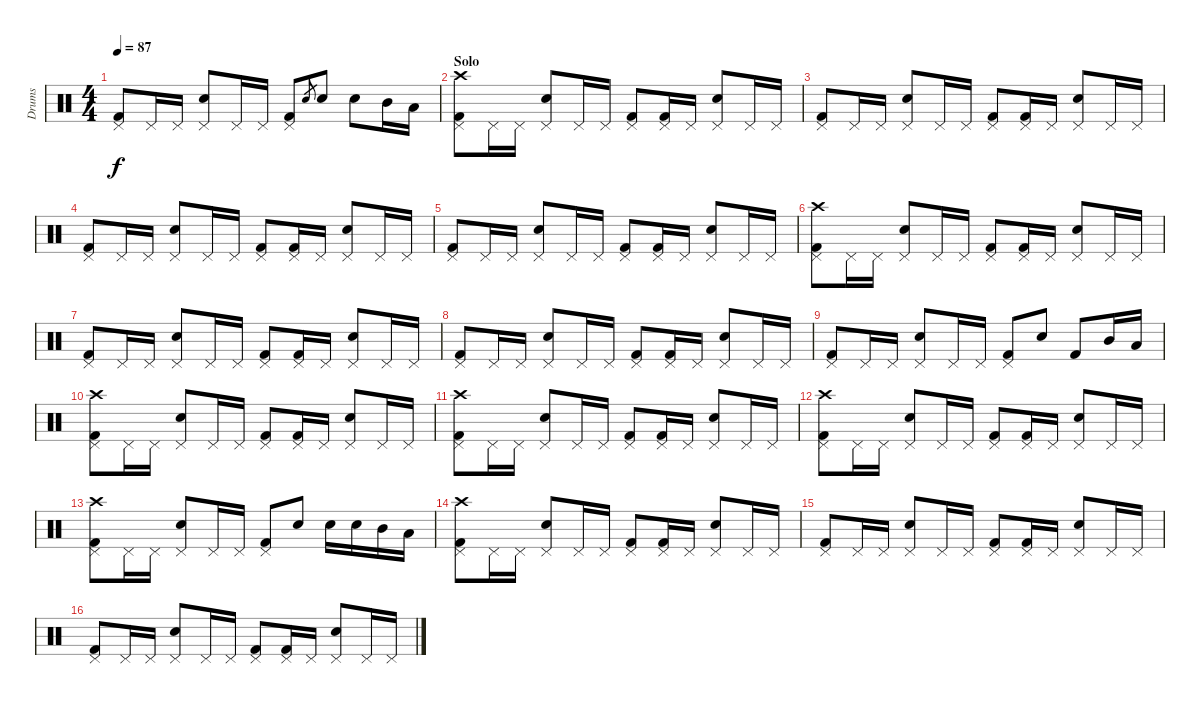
\track ("Drums" "Drums") {instrument percussion}
\staff {score}
\articulation defaults
\ts (4 4)
\tempo 87
\clef neutral
\ks c
("Kick (hit) 2" "Pedal Hi-Hat (hit)").8{dy f} "Pedal Hi-Hat (hit)".16 "Pedal Hi-Hat (hit)".16 ("Snare (hit) 2" "Pedal Hi-Hat (hit)").8 "Pedal Hi-Hat (hit)".16 "Pedal Hi-Hat (hit)".16 ("Kick (hit) 2" "Pedal Hi-Hat (hit)").8 "Snare (hit) 2".8{gr} "Snare (hit) 2".8 "Snare (hit) 2".8 "Mid Tom (hit)".16 "Low Tom (hit)".16 |
\section ("" "Solo")
("Kick (hit) 2" "Pedal Hi-Hat (hit)" "Crash high (hit)").8 "Pedal Hi-Hat (hit)".16 "Pedal Hi-Hat (hit)".16 ("Snare (hit) 2" "Pedal Hi-Hat (hit)").8 "Pedal Hi-Hat (hit)".16 "Pedal Hi-Hat (hit)".16 ("Kick (hit) 2" "Pedal Hi-Hat (hit)").8 ("Kick (hit) 2" "Pedal Hi-Hat (hit)").16 "Pedal Hi-Hat (hit)".16 ("Snare (hit) 2" "Pedal Hi-Hat (hit)").8 "Pedal Hi-Hat (hit)".16 "Pedal Hi-Hat (hit)".16 |
("Kick (hit) 2" "Pedal Hi-Hat (hit)").8 "Pedal Hi-Hat (hit)".16 "Pedal Hi-Hat (hit)".16 ("Snare (hit) 2" "Pedal Hi-Hat (hit)").8 "Pedal Hi-Hat (hit)".16 "Pedal Hi-Hat (hit)".16 ("Kick (hit) 2" "Pedal Hi-Hat (hit)").8 ("Kick (hit) 2" "Pedal Hi-Hat (hit)").16 "Pedal Hi-Hat (hit)".16 ("Snare (hit) 2" "Pedal Hi-Hat (hit)").8 "Pedal Hi-Hat (hit)".16 "Pedal Hi-Hat (hit)".16 |
("Kick (hit) 2" "Pedal Hi-Hat (hit)").8 "Pedal Hi-Hat (hit)".16 "Pedal Hi-Hat (hit)".16 ("Snare (hit) 2" "Pedal Hi-Hat (hit)").8 "Pedal Hi-Hat (hit)".16 "Pedal Hi-Hat (hit)".16 ("Kick (hit) 2" "Pedal Hi-Hat (hit)").8 ("Kick (hit) 2" "Pedal Hi-Hat (hit)").16 "Pedal Hi-Hat (hit)".16 ("Snare (hit) 2" "Pedal Hi-Hat (hit)").8 "Pedal Hi-Hat (hit)".16 "Pedal Hi-Hat (hit)".16 |
("Kick (hit) 2" "Pedal Hi-Hat (hit)").8 "Pedal Hi-Hat (hit)".16 "Pedal Hi-Hat (hit)".16 ("Snare (hit) 2" "Pedal Hi-Hat (hit)").8 "Pedal Hi-Hat (hit)".16 "Pedal Hi-Hat (hit)".16 ("Kick (hit) 2" "Pedal Hi-Hat (hit)").8 ("Kick (hit) 2" "Pedal Hi-Hat (hit)").16 "Pedal Hi-Hat (hit)".16 ("Snare (hit) 2" "Pedal Hi-Hat (hit)").8 "Pedal Hi-Hat (hit)".16 "Pedal Hi-Hat (hit)".16 |
("Kick (hit) 2" "Pedal Hi-Hat (hit)" "Crash high (hit)").8 "Pedal Hi-Hat (hit)".16 "Pedal Hi-Hat (hit)".16 ("Snare (hit) 2" "Pedal Hi-Hat (hit)").8 "Pedal Hi-Hat (hit)".16 "Pedal Hi-Hat (hit)".16 ("Kick (hit) 2" "Pedal Hi-Hat (hit)").8 ("Kick (hit) 2" "Pedal Hi-Hat (hit)").16 "Pedal Hi-Hat (hit)".16 ("Snare (hit) 2" "Pedal Hi-Hat (hit)").8 "Pedal Hi-Hat (hit)".16 "Pedal Hi-Hat (hit)".16 |
("Kick (hit) 2" "Pedal Hi-Hat (hit)").8 "Pedal Hi-Hat (hit)".16 "Pedal Hi-Hat (hit)".16 ("Snare (hit) 2" "Pedal Hi-Hat (hit)").8 "Pedal Hi-Hat (hit)".16 "Pedal Hi-Hat (hit)".16 ("Kick (hit) 2" "Pedal Hi-Hat (hit)").8 ("Kick (hit) 2" "Pedal Hi-Hat (hit)").16 "Pedal Hi-Hat (hit)".16 ("Snare (hit) 2" "Pedal Hi-Hat (hit)").8 "Pedal Hi-Hat (hit)".16 "Pedal Hi-Hat (hit)".16 |
("Kick (hit) 2" "Pedal Hi-Hat (hit)").8 "Pedal Hi-Hat (hit)".16 "Pedal Hi-Hat (hit)".16 ("Snare (hit) 2" "Pedal Hi-Hat (hit)").8 "Pedal Hi-Hat (hit)".16 "Pedal Hi-Hat (hit)".16 ("Kick (hit) 2" "Pedal Hi-Hat (hit)").8 ("Kick (hit) 2" "Pedal Hi-Hat (hit)").16 "Pedal Hi-Hat (hit)".16 ("Snare (hit) 2" "Pedal Hi-Hat (hit)").8 "Pedal Hi-Hat (hit)".16 "Pedal Hi-Hat (hit)".16 |
("Kick (hit) 2" "Pedal Hi-Hat (hit)").8 "Pedal Hi-Hat (hit)".16 "Pedal Hi-Hat (hit)".16 ("Snare (hit) 2" "Pedal Hi-Hat (hit)").8 "Pedal Hi-Hat (hit)".16 "Pedal Hi-Hat (hit)".16 ("Kick (hit) 2" "Pedal Hi-Hat (hit)").8 "Snare (hit) 2".8 "Kick (hit) 2".8 "Mid Tom (hit)".16 "Low Tom (hit)".16 |
("Kick (hit) 2" "Pedal Hi-Hat (hit)" "Crash high (hit)").8 "Pedal Hi-Hat (hit)".16 "Pedal Hi-Hat (hit)".16 ("Snare (hit) 2" "Pedal Hi-Hat (hit)").8 "Pedal Hi-Hat (hit)".16 "Pedal Hi-Hat (hit)".16 ("Kick (hit) 2" "Pedal Hi-Hat (hit)").8 ("Kick (hit) 2" "Pedal Hi-Hat (hit)").16 "Pedal Hi-Hat (hit)".16 ("Snare (hit) 2" "Pedal Hi-Hat (hit)").8 "Pedal Hi-Hat (hit)".16 "Pedal Hi-Hat (hit)".16 |
("Kick (hit) 2" "Pedal Hi-Hat (hit)" "Crash high (hit)").8 "Pedal Hi-Hat (hit)".16 "Pedal Hi-Hat (hit)".16 ("Snare (hit) 2" "Pedal Hi-Hat (hit)").8 "Pedal Hi-Hat (hit)".16 "Pedal Hi-Hat (hit)".16 ("Kick (hit) 2" "Pedal Hi-Hat (hit)").8 ("Kick (hit) 2" "Pedal Hi-Hat (hit)").16 "Pedal Hi-Hat (hit)".16 ("Snare (hit) 2" "Pedal Hi-Hat (hit)").8 "Pedal Hi-Hat (hit)".16 "Pedal Hi-Hat (hit)".16 |
("Kick (hit) 2" "Pedal Hi-Hat (hit)" "Crash high (hit)").8 "Pedal Hi-Hat (hit)".16 "Pedal Hi-Hat (hit)".16 ("Snare (hit) 2" "Pedal Hi-Hat (hit)").8 "Pedal Hi-Hat (hit)".16 "Pedal Hi-Hat (hit)".16 ("Kick (hit) 2" "Pedal Hi-Hat (hit)").8 ("Kick (hit) 2" "Pedal Hi-Hat (hit)").16 "Pedal Hi-Hat (hit)".16 ("Snare (hit) 2" "Pedal Hi-Hat (hit)").8 "Pedal Hi-Hat (hit)".16 "Pedal Hi-Hat (hit)".16 |
("Kick (hit) 2" "Pedal Hi-Hat (hit)" "Crash high (hit)").8 "Pedal Hi-Hat (hit)".16 "Pedal Hi-Hat (hit)".16 ("Snare (hit) 2" "Pedal Hi-Hat (hit)").8 "Pedal Hi-Hat (hit)".16 "Pedal Hi-Hat (hit)".16 ("Kick (hit) 2" "Pedal Hi-Hat (hit)").8 "Snare (hit) 2".8 "Snare (hit) 2".16 "Snare (hit) 2".16 "Mid Tom (hit)".16 "Low Tom (hit)".16 |
("Kick (hit) 2" "Pedal Hi-Hat (hit)" "Crash high (hit)").8 "Pedal Hi-Hat (hit)".16 "Pedal Hi-Hat (hit)".16 ("Snare (hit) 2" "Pedal Hi-Hat (hit)").8 "Pedal Hi-Hat (hit)".16 "Pedal Hi-Hat (hit)".16 ("Kick (hit) 2" "Pedal Hi-Hat (hit)").8 ("Kick (hit) 2" "Pedal Hi-Hat (hit)").16 "Pedal Hi-Hat (hit)".16 ("Snare (hit) 2" "Pedal Hi-Hat (hit)").8 "Pedal Hi-Hat (hit)".16 "Pedal Hi-Hat (hit)".16 |
("Kick (hit) 2" "Pedal Hi-Hat (hit)").8 "Pedal Hi-Hat (hit)".16 "Pedal Hi-Hat (hit)".16 ("Snare (hit) 2" "Pedal Hi-Hat (hit)").8 "Pedal Hi-Hat (hit)".16 "Pedal Hi-Hat (hit)".16 ("Kick (hit) 2" "Pedal Hi-Hat (hit)").8 ("Kick (hit) 2" "Pedal Hi-Hat (hit)").16 "Pedal Hi-Hat (hit)".16 ("Snare (hit) 2" "Pedal Hi-Hat (hit)").8 "Pedal Hi-Hat (hit)".16 "Pedal Hi-Hat (hit)".16 |
("Kick (hit) 2" "Pedal Hi-Hat (hit)").8 "Pedal Hi-Hat (hit)".16 "Pedal Hi-Hat (hit)".16 ("Snare (hit) 2" "Pedal Hi-Hat (hit)").8 "Pedal Hi-Hat (hit)".16 "Pedal Hi-Hat (hit)".16 ("Kick (hit) 2" "Pedal Hi-Hat (hit)").8 ("Kick (hit) 2" "Pedal Hi-Hat (hit)").16 "Pedal Hi-Hat (hit)".16 ("Snare (hit) 2" "Pedal Hi-Hat (hit)").8 "Pedal Hi-Hat (hit)".16 "Pedal Hi-Hat (hit)".16
